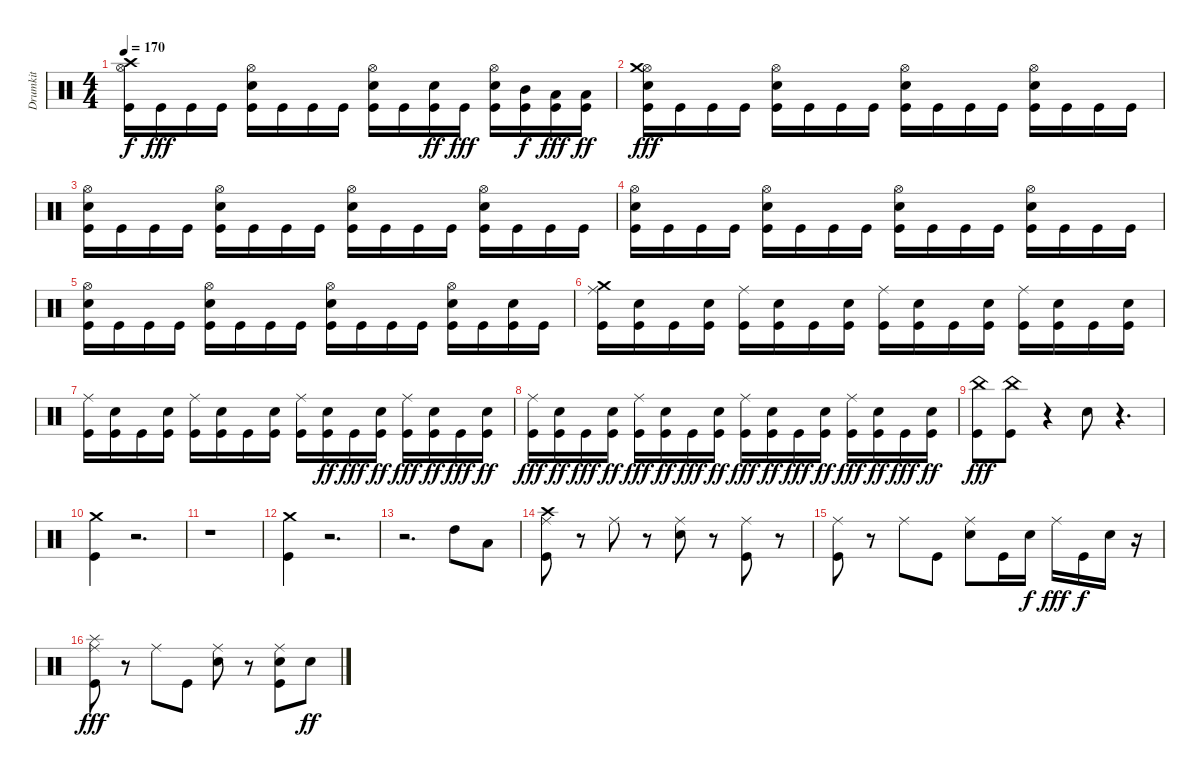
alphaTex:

\track ("Drumkit" "Drumkit") {instrument percussion}
\staff {score}
\articulation defaults
\ts (4 4)
\tempo 170
\clef neutral
\ks c
("Crash high (hit)" "Hi-Hat (open)" "Kick (hit)").16{dy f} "Kick (hit)".16{dy fff} "Kick (hit)".16 "Kick (hit)".16 ("Hi-Hat (open)" "Snare (hit) 2" "Kick (hit)").16 "Kick (hit)".16 "Kick (hit)".16 "Kick (hit)".16 ("Snare (hit) 2" "Hi-Hat (open)" "Kick (hit)").16 "Kick (hit)".16 ("Snare (hit) 2" "Kick (hit)").16{dy ff} "Kick (hit)".16{dy fff} ("Hi-Hat (open)" "Snare (hit) 2" "Kick (hit)").16 ("Mid Tom (hit)" "Kick (hit)").16{dy f} ("Low Tom (hit)" "Kick (hit)").16{dy fff} ("Low Tom (hit)" "Kick (hit)").16{dy ff} |
("Hi-Hat (open)" "Crash medium (hit)" "Snare (hit) 2" "Kick (hit)").16{dy fff} "Kick (hit)".16 "Kick (hit)".16 "Kick (hit)".16 ("Hi-Hat (open)" "Snare (hit) 2" "Kick (hit)").16 "Kick (hit)".16 "Kick (hit)".16 "Kick (hit)".16 ("Hi-Hat (open)" "Snare (hit) 2" "Kick (hit)").16 "Kick (hit)".16 "Kick (hit)".16 "Kick (hit)".16 ("Hi-Hat (open)" "Snare (hit) 2" "Kick (hit)").16 "Kick (hit)".16 "Kick (hit)".16 "Kick (hit)".16 |
("Hi-Hat (open)" "Snare (hit) 2" "Kick (hit)").16 "Kick (hit)".16 "Kick (hit)".16 "Kick (hit)".16 ("Hi-Hat (open)" "Snare (hit) 2" "Kick (hit)").16 "Kick (hit)".16 "Kick (hit)".16 "Kick (hit)".16 ("Hi-Hat (open)" "Snare (hit) 2" "Kick (hit)").16 "Kick (hit)".16 "Kick (hit)".16 "Kick (hit)".16 ("Hi-Hat (open)" "Snare (hit) 2" "Kick (hit)").16 "Kick (hit)".16 "Kick (hit)".16 "Kick (hit)".16 |
("Hi-Hat (open)" "Snare (hit) 2" "Kick (hit)").16 "Kick (hit)".16 "Kick (hit)".16 "Kick (hit)".16 ("Hi-Hat (open)" "Snare (hit) 2" "Kick (hit)").16 "Kick (hit)".16 "Kick (hit)".16 "Kick (hit)".16 ("Hi-Hat (open)" "Snare (hit) 2" "Kick (hit)").16 "Kick (hit)".16 "Kick (hit)".16 "Kick (hit)".16 ("Hi-Hat (open)" "Snare (hit) 2" "Kick (hit)").16 "Kick (hit)".16 "Kick (hit)".16 "Kick (hit)".16 |
("Hi-Hat (open)" "Snare (hit) 2" "Kick (hit)").16 "Kick (hit)".16 "Kick (hit)".16 "Kick (hit)".16 ("Hi-Hat (open)" "Snare (hit) 2" "Kick (hit)").16 "Kick (hit)".16 "Kick (hit)".16 "Kick (hit)".16 ("Hi-Hat (open)" "Snare (hit) 2" "Kick (hit)").16 "Kick (hit)".16 "Kick (hit)".16 "Kick (hit)".16 ("Hi-Hat (open)" "Snare (hit) 2" "Kick (hit)").16 "Kick (hit)".16 ("Snare (hit) 2" "Kick (hit)").16 "Kick (hit)".16 |
("Ride (middle)" "Crash medium (hit)" "Kick (hit)").16 ("Snare (hit) 2" "Kick (hit)").16 "Kick (hit)".16 ("Snare (hit) 2" "Kick (hit)").16 ("Ride (middle)" "Kick (hit)").16 ("Snare (hit) 2" "Kick (hit)").16 "Kick (hit)".16 ("Snare (hit) 2" "Kick (hit)").16 ("Ride (middle)" "Kick (hit)").16 ("Snare (hit) 2" "Kick (hit)").16 "Kick (hit)".16 ("Snare (hit) 2" "Kick (hit)").16 ("Ride (middle)" "Kick (hit)").16 ("Snare (hit) 2" "Kick (hit)").16 "Kick (hit)".16 ("Snare (hit) 2" "Kick (hit)").16 |
("Ride (middle)" "Kick (hit)").16 ("Snare (hit) 2" "Kick (hit)").16 "Kick (hit)".16 ("Snare (hit) 2" "Kick (hit)").16 ("Ride (middle)" "Kick (hit)").16 ("Snare (hit) 2" "Kick (hit)").16 "Kick (hit)".16 ("Snare (hit) 2" "Kick (hit)").16 ("Ride (middle)" "Kick (hit)").16 ("Snare (hit) 2" "Kick (hit)").16{dy ff} "Kick (hit)".16{dy fff} ("Snare (hit) 2" "Kick (hit)").16{dy ff} ("Ride (middle)" "Kick (hit)").16{dy fff} ("Snare (hit) 2" "Kick (hit)").16{dy ff} "Kick (hit)".16{dy fff} ("Snare (hit) 2" "Kick (hit)").16{dy ff} |
("Ride (middle)" "Kick (hit)").16{dy fff} ("Snare (hit) 2" "Kick (hit)").16{dy ff} "Kick (hit)".16{dy fff} ("Snare (hit) 2" "Kick (hit)").16{dy ff} ("Ride (middle)" "Kick (hit)").16{dy fff} ("Snare (hit) 2" "Kick (hit)").16{dy ff} "Kick (hit)".16{dy fff} ("Snare (hit) 2" "Kick (hit)").16{dy ff} ("Ride (middle)" "Kick (hit)").16{dy fff} ("Snare (hit) 2" "Kick (hit)").16{dy ff} "Kick (hit)".16{dy fff} ("Snare (hit) 2" "Kick (hit)").16{dy ff} ("Ride (middle)" "Kick (hit)").16{dy fff} ("Snare (hit) 2" "Kick (hit)").16{dy ff} "Kick (hit)".16{dy fff} ("Snare (hit) 2" "Kick (hit)").16{dy ff} |
("China (hit)" "Kick (hit)").8{dy fff} ("China (hit)" "Kick (hit)").8 r.4 "Snare (hit) 2".8 r.4{d} |
("Crash medium (hit)" "Kick (hit)").4 r.2{d} |
r.1 |
("Crash medium (hit)" "Kick (hit)").4 r.2{d} |
r.2{d} "High Tom (hit)".8 "Low Tom (hit)".8 |
("Ride (middle)" "Crash high (hit)" "Kick (hit)").8 r.8 "Ride (middle)".8 r.8 ("Ride (middle)" "Snare (hit) 2").8 r.8 ("Ride (middle)" "Kick (hit)").8 r.8 |
("Ride (middle)" "Kick (hit)").8 r.8 "Ride (middle)".8 "Kick (hit)".8 ("Ride (middle)" "Snare (hit) 2").8 "Kick (hit)".16 "Snare (hit) 2".16{dy f} "Ride (middle)".16{dy fff} "Kick (hit)".16{dy f} "Snare (hit) 2".16 r.16 |
("Splash (hit)" "Ride (middle)" "Kick (hit)").8{dy fff} r.8 "Ride (middle)".8 "Kick (hit)".8 ("Ride (middle)" "Snare (hit) 2").8 r.8 ("Ride (middle)" "Snare (hit) 2" "Kick (hit)").8 "Snare (hit) 2".8{dy ff}
